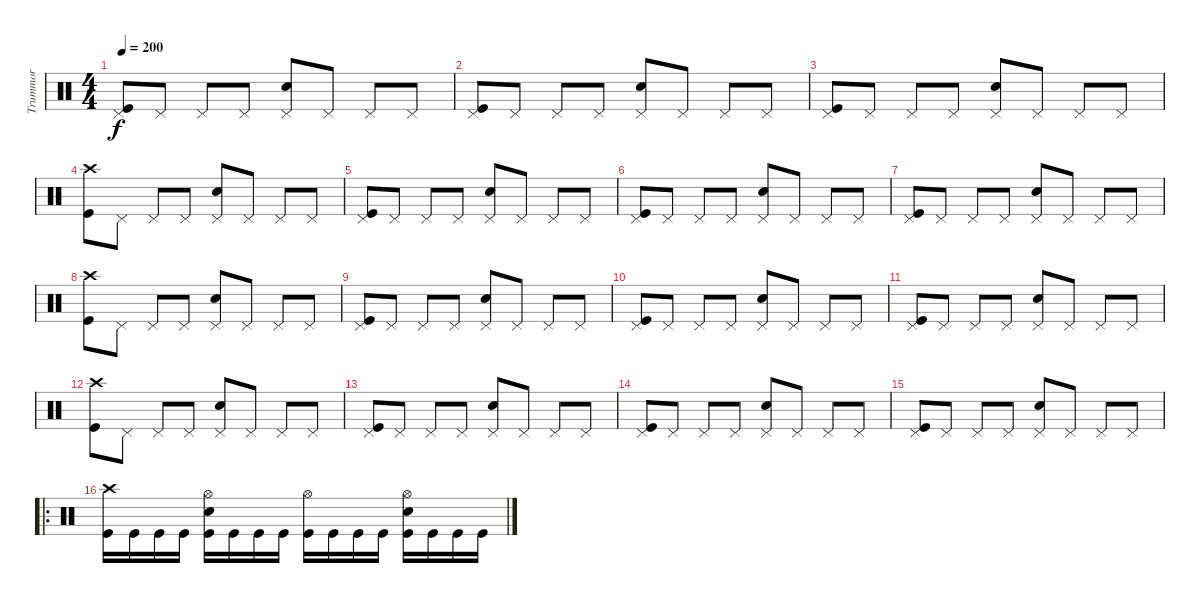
\track ("Trummor" "Trummor") {instrument percussion}
\staff {score}
\articulation defaults
\ts (4 4)
\tempo 200
\clef neutral
\ks c
("Pedal Hi-Hat (hit)" "Kick (hit)").8{dy f} "Pedal Hi-Hat (hit)".8 "Pedal Hi-Hat (hit)".8 "Pedal Hi-Hat (hit)".8 ("Pedal Hi-Hat (hit)" "Electric Snare (hit)").8 "Pedal Hi-Hat (hit)".8 "Pedal Hi-Hat (hit)".8 "Pedal Hi-Hat (hit)".8 |
("Pedal Hi-Hat (hit)" "Kick (hit)").8 "Pedal Hi-Hat (hit)".8 "Pedal Hi-Hat (hit)".8 "Pedal Hi-Hat (hit)".8 ("Pedal Hi-Hat (hit)" "Electric Snare (hit)").8 "Pedal Hi-Hat (hit)".8 "Pedal Hi-Hat (hit)".8 "Pedal Hi-Hat (hit)".8 |
("Pedal Hi-Hat (hit)" "Kick (hit)").8 "Pedal Hi-Hat (hit)".8 "Pedal Hi-Hat (hit)".8 "Pedal Hi-Hat (hit)".8 ("Pedal Hi-Hat (hit)" "Electric Snare (hit)").8 "Pedal Hi-Hat (hit)".8 "Pedal Hi-Hat (hit)".8 "Pedal Hi-Hat (hit)".8 |
("Crash high (hit)" "Kick (hit)").8 "Pedal Hi-Hat (hit)".8 "Pedal Hi-Hat (hit)".8 "Pedal Hi-Hat (hit)".8 ("Pedal Hi-Hat (hit)" "Electric Snare (hit)").8 "Pedal Hi-Hat (hit)".8 "Pedal Hi-Hat (hit)".8 "Pedal Hi-Hat (hit)".8 |
("Pedal Hi-Hat (hit)" "Kick (hit)").8 "Pedal Hi-Hat (hit)".8 "Pedal Hi-Hat (hit)".8 "Pedal Hi-Hat (hit)".8 ("Pedal Hi-Hat (hit)" "Electric Snare (hit)").8 "Pedal Hi-Hat (hit)".8 "Pedal Hi-Hat (hit)".8 "Pedal Hi-Hat (hit)".8 |
("Pedal Hi-Hat (hit)" "Kick (hit)").8 "Pedal Hi-Hat (hit)".8 "Pedal Hi-Hat (hit)".8 "Pedal Hi-Hat (hit)".8 ("Pedal Hi-Hat (hit)" "Electric Snare (hit)").8 "Pedal Hi-Hat (hit)".8 "Pedal Hi-Hat (hit)".8 "Pedal Hi-Hat (hit)".8 |
("Pedal Hi-Hat (hit)" "Kick (hit)").8 "Pedal Hi-Hat (hit)".8 "Pedal Hi-Hat (hit)".8 "Pedal Hi-Hat (hit)".8 ("Pedal Hi-Hat (hit)" "Electric Snare (hit)").8 "Pedal Hi-Hat (hit)".8 "Pedal Hi-Hat (hit)".8 "Pedal Hi-Hat (hit)".8 |
("Crash high (hit)" "Kick (hit)").8 "Pedal Hi-Hat (hit)".8 "Pedal Hi-Hat (hit)".8 "Pedal Hi-Hat (hit)".8 ("Pedal Hi-Hat (hit)" "Electric Snare (hit)").8 "Pedal Hi-Hat (hit)".8 "Pedal Hi-Hat (hit)".8 "Pedal Hi-Hat (hit)".8 |
("Pedal Hi-Hat (hit)" "Kick (hit)").8 "Pedal Hi-Hat (hit)".8 "Pedal Hi-Hat (hit)".8 "Pedal Hi-Hat (hit)".8 ("Pedal Hi-Hat (hit)" "Electric Snare (hit)").8 "Pedal Hi-Hat (hit)".8 "Pedal Hi-Hat (hit)".8 "Pedal Hi-Hat (hit)".8 |
("Pedal Hi-Hat (hit)" "Kick (hit)").8 "Pedal Hi-Hat (hit)".8 "Pedal Hi-Hat (hit)".8 "Pedal Hi-Hat (hit)".8 ("Pedal Hi-Hat (hit)" "Electric Snare (hit)").8 "Pedal Hi-Hat (hit)".8 "Pedal Hi-Hat (hit)".8 "Pedal Hi-Hat (hit)".8 |
("Pedal Hi-Hat (hit)" "Kick (hit)").8 "Pedal Hi-Hat (hit)".8 "Pedal Hi-Hat (hit)".8 "Pedal Hi-Hat (hit)".8 ("Pedal Hi-Hat (hit)" "Electric Snare (hit)").8 "Pedal Hi-Hat (hit)".8 "Pedal Hi-Hat (hit)".8 "Pedal Hi-Hat (hit)".8 |
("Crash high (hit)" "Kick (hit)").8 "Pedal Hi-Hat (hit)".8 "Pedal Hi-Hat (hit)".8 "Pedal Hi-Hat (hit)".8 ("Pedal Hi-Hat (hit)" "Electric Snare (hit)").8 "Pedal Hi-Hat (hit)".8 "Pedal Hi-Hat (hit)".8 "Pedal Hi-Hat (hit)".8 |
("Pedal Hi-Hat (hit)" "Kick (hit)").8 "Pedal Hi-Hat (hit)".8 "Pedal Hi-Hat (hit)".8 "Pedal Hi-Hat (hit)".8 ("Pedal Hi-Hat (hit)" "Electric Snare (hit)").8 "Pedal Hi-Hat (hit)".8 "Pedal Hi-Hat (hit)".8 "Pedal Hi-Hat (hit)".8 |
("Pedal Hi-Hat (hit)" "Kick (hit)").8 "Pedal Hi-Hat (hit)".8 "Pedal Hi-Hat (hit)".8 "Pedal Hi-Hat (hit)".8 ("Pedal Hi-Hat (hit)" "Electric Snare (hit)").8 "Pedal Hi-Hat (hit)".8 "Pedal Hi-Hat (hit)".8 "Pedal Hi-Hat (hit)".8 |
("Pedal Hi-Hat (hit)" "Kick (hit)").8 "Pedal Hi-Hat (hit)".8 "Pedal Hi-Hat (hit)".8 "Pedal Hi-Hat (hit)".8 ("Pedal Hi-Hat (hit)" "Electric Snare (hit)").8 "Pedal Hi-Hat (hit)".8 "Pedal Hi-Hat (hit)".8 "Pedal Hi-Hat (hit)".8 |
\ro
("Crash high (hit)" "Kick (hit)").16 "Kick (hit)".16 "Kick (hit)".16 "Kick (hit)".16 ("Hi-Hat (open)" "Electric Snare (hit)" "Kick (hit)").16 "Kick (hit)".16 "Kick (hit)".16 "Kick (hit)".16 ("Hi-Hat (open)" "Kick (hit)").16 "Kick (hit)".16 "Kick (hit)".16 "Kick (hit)".16 ("Hi-Hat (open)" "Electric Snare (hit)" "Kick (hit)").16 "Kick (hit)".16 "Kick (hit)".16 "Kick (hit)".16
